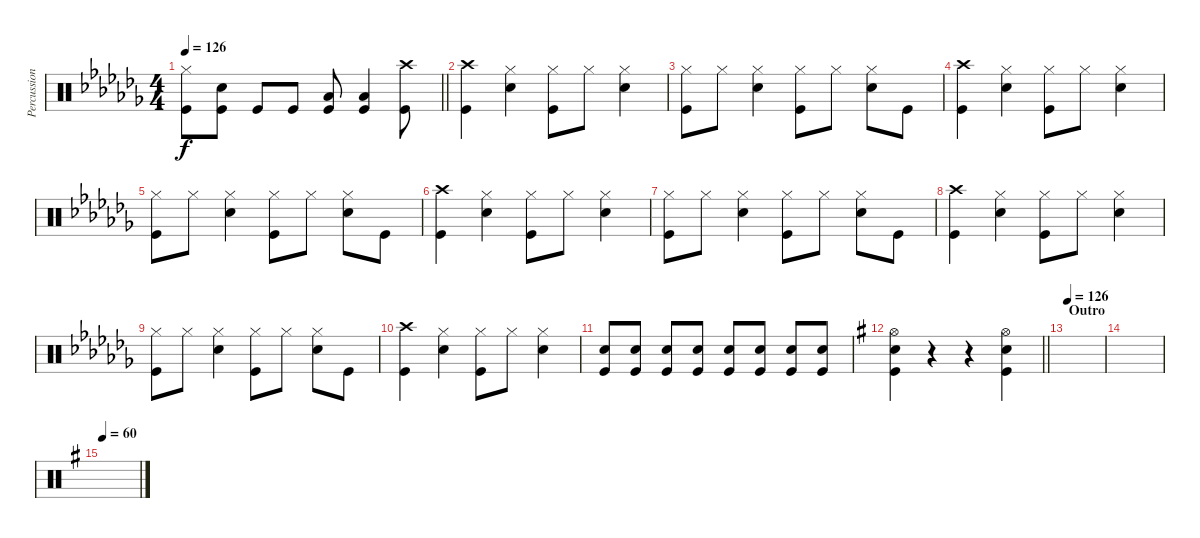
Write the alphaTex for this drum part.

\track ("Percussion" "Percussion") {instrument percussion}
\staff {score}
\articulation defaults
\ts (4 4)
\tempo 126
\clef neutral
\barLineRight lightlight
\ks cb
("Hi-Hat (closed)" "Kick (hit)").8{dy f} ("Snare (hit) 2" "Kick (hit)").8 "Kick (hit)".8 "Kick (hit)".8 ("Kick (hit)" "Low Tom (hit)").8 ("Kick (hit)" "Low Tom (hit)").4 ("Kick (hit)" "Crash high (hit)").8 |
("Crash high (hit)" "Kick (hit)").4 ("Snare (hit) 2" "Hi-Hat (closed)").4 ("Hi-Hat (closed)" "Kick (hit)").8 "Hi-Hat (closed)".8 ("Hi-Hat (closed)" "Snare (hit) 2").4 |
("Kick (hit)" "Hi-Hat (closed)").8 "Hi-Hat (closed)".8 ("Hi-Hat (closed)" "Snare (hit) 2").4 ("Kick (hit)" "Hi-Hat (closed)").8 "Hi-Hat (closed)".8 ("Hi-Hat (closed)" "Snare (hit) 2").8 "Kick (hit)".8 |
("Crash high (hit)" "Kick (hit)").4 ("Snare (hit) 2" "Hi-Hat (closed)").4 ("Hi-Hat (closed)" "Kick (hit)").8 "Hi-Hat (closed)".8 ("Hi-Hat (closed)" "Snare (hit) 2").4 |
("Kick (hit)" "Hi-Hat (closed)").8 "Hi-Hat (closed)".8 ("Hi-Hat (closed)" "Snare (hit) 2").4 ("Kick (hit)" "Hi-Hat (closed)").8 "Hi-Hat (closed)".8 ("Hi-Hat (closed)" "Snare (hit) 2").8 "Kick (hit)".8 |
("Crash high (hit)" "Kick (hit)").4 ("Snare (hit) 2" "Hi-Hat (closed)").4 ("Hi-Hat (closed)" "Kick (hit)").8 "Hi-Hat (closed)".8 ("Hi-Hat (closed)" "Snare (hit) 2").4 |
("Kick (hit)" "Hi-Hat (closed)").8 "Hi-Hat (closed)".8 ("Hi-Hat (closed)" "Snare (hit) 2").4 ("Kick (hit)" "Hi-Hat (closed)").8 "Hi-Hat (closed)".8 ("Hi-Hat (closed)" "Snare (hit) 2").8 "Kick (hit)".8 |
("Crash high (hit)" "Kick (hit)").4 ("Snare (hit) 2" "Hi-Hat (closed)").4 ("Hi-Hat (closed)" "Kick (hit)").8 "Hi-Hat (closed)".8 ("Hi-Hat (closed)" "Snare (hit) 2").4 |
("Kick (hit)" "Hi-Hat (closed)").8 "Hi-Hat (closed)".8 ("Hi-Hat (closed)" "Snare (hit) 2").4 ("Kick (hit)" "Hi-Hat (closed)").8 "Hi-Hat (closed)".8 ("Hi-Hat (closed)" "Snare (hit) 2").8 "Kick (hit)".8 |
("Crash high (hit)" "Kick (hit)").4 ("Snare (hit) 2" "Hi-Hat (closed)").4 ("Hi-Hat (closed)" "Kick (hit)").8 "Hi-Hat (closed)".8 ("Hi-Hat (closed)" "Snare (hit) 2").4 |
("Kick (hit)" "Snare (hit) 2").8 ("Kick (hit)" "Snare (hit) 2").8 ("Kick (hit)" "Snare (hit) 2").8 ("Kick (hit)" "Snare (hit) 2").8 ("Kick (hit)" "Snare (hit) 2").8 ("Kick (hit)" "Snare (hit) 2").8 ("Kick (hit)" "Snare (hit) 2").8 ("Kick (hit)" "Snare (hit) 2").8 |
\barLineRight lightlight
\ks g
("Hi-Hat (open)" "Kick (hit)" "Snare (hit) 2").4 r.4 r.4 ("Hi-Hat (open)" "Kick (hit)" "Snare (hit) 2").4 |
\section ("" "Outro")
\tempo 126
|
|
\tempo 60
